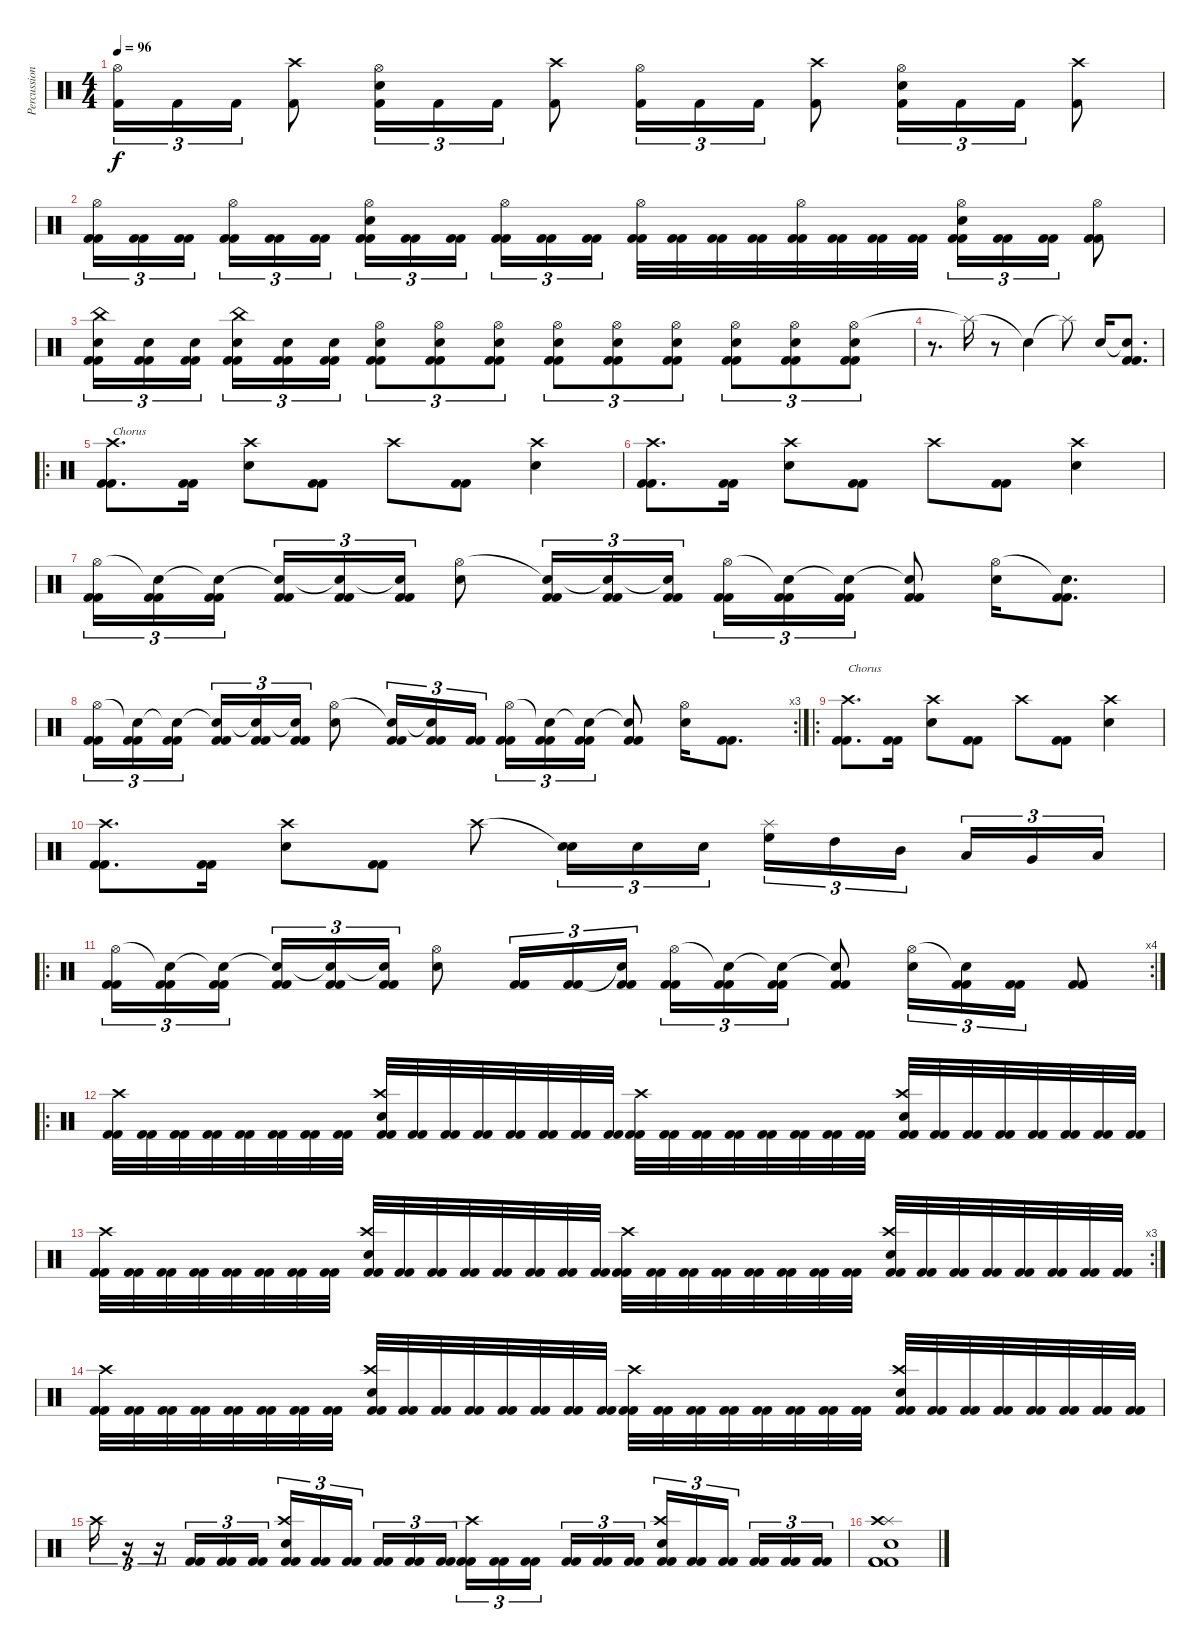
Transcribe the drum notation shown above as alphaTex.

\track ("Percussion" "Percussion") {instrument percussion}
\staff {score}
\articulation defaults
\ts (4 4)
\tempo 96
\clef neutral
\ks c
("Hi-Hat (open)" "Kick (hit) 2").16{tu (3 2) dy f} "Kick (hit) 2".16{tu (3 2)} "Kick (hit) 2".16{tu (3 2)} ("Crash high (hit)" "Kick (hit) 2").8 ("Hi-Hat (open)" "Snare (hit) 2" "Kick (hit) 2").16{tu (3 2)} "Kick (hit) 2".16{tu (3 2)} "Kick (hit) 2".16{tu (3 2)} ("Crash high (hit)" "Kick (hit) 2").8 ("Hi-Hat (open)" "Kick (hit) 2").16{tu (3 2)} "Kick (hit) 2".16{tu (3 2)} "Kick (hit) 2".16{tu (3 2)} ("Crash high (hit)" "Kick (hit) 2").8 ("Hi-Hat (open)" "Snare (hit) 2" "Kick (hit) 2").16{tu (3 2)} "Kick (hit) 2".16{tu (3 2)} "Kick (hit) 2".16{tu (3 2)} ("Crash high (hit)" "Kick (hit) 2").8 |
("Hi-Hat (open)" "Kick (hit) 2" "Kick (hit) 2").16{tu (3 2)} ("Kick (hit) 2" "Kick (hit) 2").16{tu (3 2)} ("Kick (hit) 2" "Kick (hit) 2").16{tu (3 2) beam splitsecondary} ("Hi-Hat (open)" "Kick (hit) 2" "Kick (hit) 2").16{tu (3 2)} ("Kick (hit) 2" "Kick (hit) 2").16{tu (3 2)} ("Kick (hit) 2" "Kick (hit) 2").16{tu (3 2)} ("Hi-Hat (open)" "Snare (hit) 2" "Kick (hit) 2" "Kick (hit) 2").16{tu (3 2)} ("Kick (hit) 2" "Kick (hit) 2").16{tu (3 2)} ("Kick (hit) 2" "Kick (hit) 2").16{tu (3 2) beam splitsecondary} ("Hi-Hat (open)" "Kick (hit) 2" "Kick (hit) 2").16{tu (3 2)} ("Kick (hit) 2" "Kick (hit) 2").16{tu (3 2)} ("Kick (hit) 2" "Kick (hit) 2").16{tu (3 2)} ("Hi-Hat (open)" "Kick (hit) 2" "Kick (hit) 2").32 ("Kick (hit) 2" "Kick (hit) 2").32 ("Kick (hit) 2" "Kick (hit) 2").32 ("Kick (hit) 2" "Kick (hit) 2").32 ("Hi-Hat (open)" "Kick (hit) 2" "Kick (hit) 2").32 ("Kick (hit) 2" "Kick (hit) 2").32 ("Kick (hit) 2" "Kick (hit) 2").32 ("Kick (hit) 2" "Kick (hit) 2").32 ("Hi-Hat (open)" "Snare (hit) 2" "Kick (hit) 2" "Kick (hit) 2").16{tu (3 2)} ("Kick (hit) 2" "Kick (hit) 2").16{tu (3 2)} ("Kick (hit) 2" "Kick (hit) 2").16{tu (3 2)} ("Hi-Hat (open)" "Kick (hit) 2" "Kick (hit) 2").8 |
("China (hit)" "Snare (hit) 2" "Kick (hit) 2" "Kick (hit) 2").16{tu (3 2)} ("Snare (hit) 2" "Kick (hit) 2" "Kick (hit) 2").16{tu (3 2)} ("Snare (hit) 2" "Kick (hit) 2" "Kick (hit) 2").16{tu (3 2) beam splitsecondary} ("China (hit)" "Snare (hit) 2" "Kick (hit) 2" "Kick (hit) 2").16{tu (3 2)} ("Snare (hit) 2" "Kick (hit) 2" "Kick (hit) 2").16{tu (3 2)} ("Snare (hit) 2" "Kick (hit) 2" "Kick (hit) 2").16{tu (3 2)} ("Hi-Hat (open)" "Snare (hit) 2" "Kick (hit) 2" "Kick (hit) 2").8{tu (3 2)} ("Hi-Hat (open)" "Snare (hit) 2" "Kick (hit) 2" "Kick (hit) 2").8{tu (3 2)} ("Hi-Hat (open)" "Snare (hit) 2" "Kick (hit) 2" "Kick (hit) 2").8{tu (3 2)} ("Hi-Hat (open)" "Snare (hit) 2" "Kick (hit) 2" "Kick (hit) 2").8{tu (3 2)} ("Hi-Hat (open)" "Snare (hit) 2" "Kick (hit) 2" "Kick (hit) 2").8{tu (3 2)} ("Hi-Hat (open)" "Snare (hit) 2" "Kick (hit) 2" "Kick (hit) 2").8{tu (3 2)} ("Hi-Hat (open)" "Snare (hit) 2" "Kick (hit) 2" "Kick (hit) 2").8{tu (3 2)} ("Hi-Hat (open)" "Snare (hit) 2" "Kick (hit) 2" "Kick (hit) 2").8{tu (3 2)} ("Hi-Hat (open)" "Snare (hit) 2" "Kick (hit) 2" "Kick (hit) 2").8{tu (3 2)} |
r.8{d} "Splash (hit)"{t}.16 r.8 "Snare (hit)"{t}.4 "Splash (hit)"{t}.8 "Snare (hit) 2".16 ("Snare (hit)"{t} "Kick (hit) 2" "Kick (hit) 2").8{d} |
\ro
("Crash high (hit)" "Kick (hit) 2" "Kick (hit) 2").8{d txt "Chorus"} ("Kick (hit) 2" "Kick (hit) 2").16 ("Crash high (hit)" "Snare (hit) 2").8 ("Kick (hit) 2" "Kick (hit) 2").8 "Crash high (hit)".8 ("Kick (hit) 2" "Kick (hit) 2").8 ("Crash high (hit)" "Snare (hit) 2").4 |
("Crash high (hit)" "Kick (hit) 2" "Kick (hit) 2").8{d} ("Kick (hit) 2" "Kick (hit) 2").16 ("Crash high (hit)" "Snare (hit) 2").8 ("Kick (hit) 2" "Kick (hit) 2").8 "Crash high (hit)".8 ("Kick (hit) 2" "Kick (hit) 2").8 ("Crash high (hit)" "Snare (hit) 2").4 |
("Hi-Hat (open)" "Kick (hit) 2" "Kick (hit) 2").16{tu (3 2)} ("Snare (hit)"{t} "Kick (hit) 2" "Kick (hit) 2").16{tu (3 2)} ("Snare (hit)"{t} "Kick (hit) 2" "Kick (hit) 2").16{tu (3 2) beam splitsecondary} ("Snare (hit)"{t} "Kick (hit) 2" "Kick (hit) 2").16{tu (3 2)} ("Snare (hit)"{t} "Kick (hit) 2" "Kick (hit) 2").16{tu (3 2)} ("Snare (hit)"{t} "Kick (hit) 2" "Kick (hit) 2").16{tu (3 2)} ("Hi-Hat (open)" "Snare (hit) 2").8 ("Snare (hit)"{t} "Kick (hit) 2" "Kick (hit) 2").16{tu (3 2)} ("Snare (hit)"{t} "Kick (hit) 2" "Kick (hit) 2").16{tu (3 2)} ("Snare (hit)"{t} "Kick (hit) 2" "Kick (hit) 2").16{tu (3 2)} ("Hi-Hat (open)" "Kick (hit) 2" "Kick (hit) 2").16{tu (3 2)} ("Snare (hit)"{t} "Kick (hit) 2" "Kick (hit) 2").16{tu (3 2)} ("Snare (hit)"{t} "Kick (hit) 2" "Kick (hit) 2").16{tu (3 2)} ("Snare (hit)"{t} "Kick (hit) 2" "Kick (hit) 2").8 ("Hi-Hat (open)" "Snare (hit) 2").16 ("Snare (hit)"{t} "Kick (hit) 2" "Kick (hit) 2").8{d} |
\rc 3
("Hi-Hat (open)" "Kick (hit) 2" "Kick (hit) 2").16{tu (3 2)} ("Snare (hit)"{t} "Kick (hit) 2" "Kick (hit) 2").16{tu (3 2)} ("Snare (hit)"{t} "Kick (hit) 2" "Kick (hit) 2").16{tu (3 2) beam splitsecondary} ("Snare (hit)"{t} "Kick (hit) 2" "Kick (hit) 2").16{tu (3 2)} ("Snare (hit)"{t} "Kick (hit) 2" "Kick (hit) 2").16{tu (3 2)} ("Snare (hit)"{t} "Kick (hit) 2" "Kick (hit) 2").16{tu (3 2)} ("Hi-Hat (open)" "Snare (hit) 2").8 ("Snare (hit)"{t} "Kick (hit) 2" "Kick (hit) 2").16{tu (3 2)} ("Snare (hit)"{t} "Kick (hit) 2" "Kick (hit) 2").16{tu (3 2)} ("Kick (hit) 2" "Kick (hit) 2").16{tu (3 2)} ("Hi-Hat (open)" "Kick (hit) 2" "Kick (hit) 2").16{tu (3 2)} ("Snare (hit)"{t} "Kick (hit) 2" "Kick (hit) 2").16{tu (3 2)} ("Snare (hit)"{t} "Kick (hit) 2" "Kick (hit) 2").16{tu (3 2)} ("Snare (hit)"{t} "Kick (hit) 2" "Kick (hit) 2").8 ("Hi-Hat (open)" "Snare (hit) 2").16 ("Kick (hit) 2" "Kick (hit) 2").8{d} |
\ro
("Crash high (hit)" "Kick (hit) 2" "Kick (hit) 2").8{d txt "Chorus"} ("Kick (hit) 2" "Kick (hit) 2").16 ("Crash high (hit)" "Snare (hit) 2").8 ("Kick (hit) 2" "Kick (hit) 2").8 "Crash high (hit)".8 ("Kick (hit) 2" "Kick (hit) 2").8 ("Crash high (hit)" "Snare (hit) 2").4 |
("Crash high (hit)" "Kick (hit) 2" "Kick (hit) 2").8{d} ("Kick (hit) 2" "Kick (hit) 2").16 ("Crash high (hit)" "Snare (hit) 2").8 ("Kick (hit) 2" "Kick (hit) 2").8 "Crash high (hit)".8 ("Snare (hit)"{t} "Snare (hit) 2").16{tu (3 2)} "Snare (hit) 2".16{tu (3 2)} "Snare (hit) 2".16{tu (3 2)} ("Splash (hit)" "High Floor Tom (hit)").16{tu (3 2)} "High Tom (hit)".16{tu (3 2)} "Mid Tom (hit)".16{tu (3 2) beam splitsecondary} "Low Tom (hit)".16{tu (3 2)} "Very Low Tom (hit)".16{tu (3 2)} "Low Floor Tom (hit)".16{tu (3 2)} |
\ro
\rc 4
("Hi-Hat (open)" "Kick (hit) 2" "Kick (hit) 2").16{tu (3 2)} ("Snare (hit)"{t} "Kick (hit) 2" "Kick (hit) 2").16{tu (3 2)} ("Snare (hit)"{t} "Kick (hit) 2" "Kick (hit) 2").16{tu (3 2) beam splitsecondary} ("Snare (hit)"{t} "Kick (hit) 2" "Kick (hit) 2").16{tu (3 2)} ("Snare (hit)"{t} "Kick (hit) 2" "Kick (hit) 2").16{tu (3 2)} ("Snare (hit)"{t} "Kick (hit) 2" "Kick (hit) 2").16{tu (3 2)} ("Hi-Hat (open)" "Snare (hit) 2").8 ("Kick (hit) 2" "Kick (hit) 2").16{tu (3 2)} ("Kick (hit) 2" "Kick (hit) 2").16{tu (3 2)} ("Snare (hit)"{t} "Kick (hit) 2" "Kick (hit) 2").16{tu (3 2)} ("Hi-Hat (open)" "Kick (hit) 2" "Kick (hit) 2").16{tu (3 2)} ("Snare (hit)"{t} "Kick (hit) 2" "Kick (hit) 2").16{tu (3 2)} ("Snare (hit)"{t} "Kick (hit) 2" "Kick (hit) 2").16{tu (3 2)} ("Snare (hit)"{t} "Kick (hit) 2" "Kick (hit) 2").8 ("Hi-Hat (open)" "Snare (hit) 2").16{tu (3 2)} ("Snare (hit)"{t} "Kick (hit) 2" "Kick (hit) 2").16{tu (3 2)} ("Kick (hit) 2" "Kick (hit) 2").16{tu (3 2)} ("Kick (hit) 2" "Kick (hit) 2").8 |
\ro
("Crash high (hit)" "Kick (hit) 2" "Kick (hit) 2").32 ("Kick (hit) 2" "Kick (hit) 2").32 ("Kick (hit) 2" "Kick (hit) 2").32 ("Kick (hit) 2" "Kick (hit) 2").32 ("Kick (hit) 2" "Kick (hit) 2").32 ("Kick (hit) 2" "Kick (hit) 2").32 ("Kick (hit) 2" "Kick (hit) 2").32 ("Kick (hit) 2" "Kick (hit) 2").32 ("Crash high (hit)" "Snare (hit) 2" "Kick (hit) 2" "Kick (hit) 2").32 ("Kick (hit) 2" "Kick (hit) 2").32 ("Kick (hit) 2" "Kick (hit) 2").32 ("Kick (hit) 2" "Kick (hit) 2").32 ("Kick (hit) 2" "Kick (hit) 2").32 ("Kick (hit) 2" "Kick (hit) 2").32 ("Kick (hit) 2" "Kick (hit) 2").32 ("Kick (hit) 2" "Kick (hit) 2").32 ("Crash high (hit)" "Kick (hit) 2" "Kick (hit) 2").32 ("Kick (hit) 2" "Kick (hit) 2").32 ("Kick (hit) 2" "Kick (hit) 2").32 ("Kick (hit) 2" "Kick (hit) 2").32 ("Kick (hit) 2" "Kick (hit) 2").32 ("Kick (hit) 2" "Kick (hit) 2").32 ("Kick (hit) 2" "Kick (hit) 2").32 ("Kick (hit) 2" "Kick (hit) 2").32 ("Crash high (hit)" "Snare (hit) 2" "Kick (hit) 2" "Kick (hit) 2").32 ("Kick (hit) 2" "Kick (hit) 2").32 ("Kick (hit) 2" "Kick (hit) 2").32 ("Kick (hit) 2" "Kick (hit) 2").32 ("Kick (hit) 2" "Kick (hit) 2").32 ("Kick (hit) 2" "Kick (hit) 2").32 ("Kick (hit) 2" "Kick (hit) 2").32 ("Kick (hit) 2" "Kick (hit) 2").32 |
\rc 3
("Crash high (hit)" "Kick (hit) 2" "Kick (hit) 2").32 ("Kick (hit) 2" "Kick (hit) 2").32 ("Kick (hit) 2" "Kick (hit) 2").32 ("Kick (hit) 2" "Kick (hit) 2").32 ("Kick (hit) 2" "Kick (hit) 2").32 ("Kick (hit) 2" "Kick (hit) 2").32 ("Kick (hit) 2" "Kick (hit) 2").32 ("Kick (hit) 2" "Kick (hit) 2").32 ("Crash high (hit)" "Snare (hit) 2" "Kick (hit) 2" "Kick (hit) 2").32 ("Kick (hit) 2" "Kick (hit) 2").32 ("Kick (hit) 2" "Kick (hit) 2").32 ("Kick (hit) 2" "Kick (hit) 2").32 ("Kick (hit) 2" "Kick (hit) 2").32 ("Kick (hit) 2" "Kick (hit) 2").32 ("Kick (hit) 2" "Kick (hit) 2").32 ("Kick (hit) 2" "Kick (hit) 2").32 ("Crash high (hit)" "Kick (hit) 2" "Kick (hit) 2").32 ("Kick (hit) 2" "Kick (hit) 2").32 ("Kick (hit) 2" "Kick (hit) 2").32 ("Kick (hit) 2" "Kick (hit) 2").32 ("Kick (hit) 2" "Kick (hit) 2").32 ("Kick (hit) 2" "Kick (hit) 2").32 ("Kick (hit) 2" "Kick (hit) 2").32 ("Kick (hit) 2" "Kick (hit) 2").32 ("Crash high (hit)" "Snare (hit) 2" "Kick (hit) 2" "Kick (hit) 2").32 ("Kick (hit) 2" "Kick (hit) 2").32 ("Kick (hit) 2" "Kick (hit) 2").32 ("Kick (hit) 2" "Kick (hit) 2").32 ("Kick (hit) 2" "Kick (hit) 2").32 ("Kick (hit) 2" "Kick (hit) 2").32 ("Kick (hit) 2" "Kick (hit) 2").32 ("Kick (hit) 2" "Kick (hit) 2").32 |
("Crash high (hit)" "Kick (hit) 2" "Kick (hit) 2").32 ("Kick (hit) 2" "Kick (hit) 2").32 ("Kick (hit) 2" "Kick (hit) 2").32 ("Kick (hit) 2" "Kick (hit) 2").32 ("Kick (hit) 2" "Kick (hit) 2").32 ("Kick (hit) 2" "Kick (hit) 2").32 ("Kick (hit) 2" "Kick (hit) 2").32 ("Kick (hit) 2" "Kick (hit) 2").32 ("Crash high (hit)" "Snare (hit) 2" "Kick (hit) 2" "Kick (hit) 2").32 ("Kick (hit) 2" "Kick (hit) 2").32 ("Kick (hit) 2" "Kick (hit) 2").32 ("Kick (hit) 2" "Kick (hit) 2").32 ("Kick (hit) 2" "Kick (hit) 2").32 ("Kick (hit) 2" "Kick (hit) 2").32 ("Kick (hit) 2" "Kick (hit) 2").32 ("Kick (hit) 2" "Kick (hit) 2").32 ("Crash high (hit)" "Kick (hit) 2" "Kick (hit) 2").32 ("Kick (hit) 2" "Kick (hit) 2").32 ("Kick (hit) 2" "Kick (hit) 2").32 ("Kick (hit) 2" "Kick (hit) 2").32 ("Kick (hit) 2" "Kick (hit) 2").32 ("Kick (hit) 2" "Kick (hit) 2").32 ("Kick (hit) 2" "Kick (hit) 2").32 ("Kick (hit) 2" "Kick (hit) 2").32 ("Crash high (hit)" "Snare (hit) 2" "Kick (hit) 2" "Kick (hit) 2").32 ("Kick (hit) 2" "Kick (hit) 2").32 ("Kick (hit) 2" "Kick (hit) 2").32 ("Kick (hit) 2" "Kick (hit) 2").32 ("Kick (hit) 2" "Kick (hit) 2").32 ("Kick (hit) 2" "Kick (hit) 2").32 ("Kick (hit) 2" "Kick (hit) 2").32 ("Kick (hit) 2" "Kick (hit) 2").32 |
"Crash high (hit)".16{tu (3 2)} r.16{tu (3 2)} r.16{tu (3 2)} ("Kick (hit) 2" "Kick (hit) 2").16{tu (3 2)} ("Kick (hit) 2" "Kick (hit) 2").16{tu (3 2)} ("Kick (hit) 2" "Kick (hit) 2").16{tu (3 2)} ("Crash high (hit)" "Snare (hit) 2" "Kick (hit) 2" "Kick (hit) 2").16{tu (3 2)} ("Kick (hit) 2" "Kick (hit) 2").16{tu (3 2)} ("Kick (hit) 2" "Kick (hit) 2").16{tu (3 2) beam splitsecondary} ("Kick (hit) 2" "Kick (hit) 2").16{tu (3 2)} ("Kick (hit) 2" "Kick (hit) 2").16{tu (3 2)} ("Kick (hit) 2" "Kick (hit) 2").16{tu (3 2)} ("Crash high (hit)" "Kick (hit) 2" "Kick (hit) 2").16{tu (3 2)} ("Kick (hit) 2" "Kick (hit) 2").16{tu (3 2)} ("Kick (hit) 2" "Kick (hit) 2").16{tu (3 2) beam splitsecondary} ("Kick (hit) 2" "Kick (hit) 2").16{tu (3 2)} ("Kick (hit) 2" "Kick (hit) 2").16{tu (3 2)} ("Kick (hit) 2" "Kick (hit) 2").16{tu (3 2)} ("Crash high (hit)" "Snare (hit) 2" "Kick (hit) 2" "Kick (hit) 2").16{tu (3 2)} ("Kick (hit) 2" "Kick (hit) 2").16{tu (3 2)} ("Kick (hit) 2" "Kick (hit) 2").16{tu (3 2) beam splitsecondary} ("Kick (hit) 2" "Kick (hit) 2").16{tu (3 2)} ("Kick (hit) 2" "Kick (hit) 2").16{tu (3 2)} ("Kick (hit) 2" "Kick (hit) 2").16{tu (3 2)} |
("Kick (hit) 2" "Splash (hit)" "Crash high (hit)" "Snare (hit) 2" "Kick (hit) 2" "Kick (hit) 2").1
